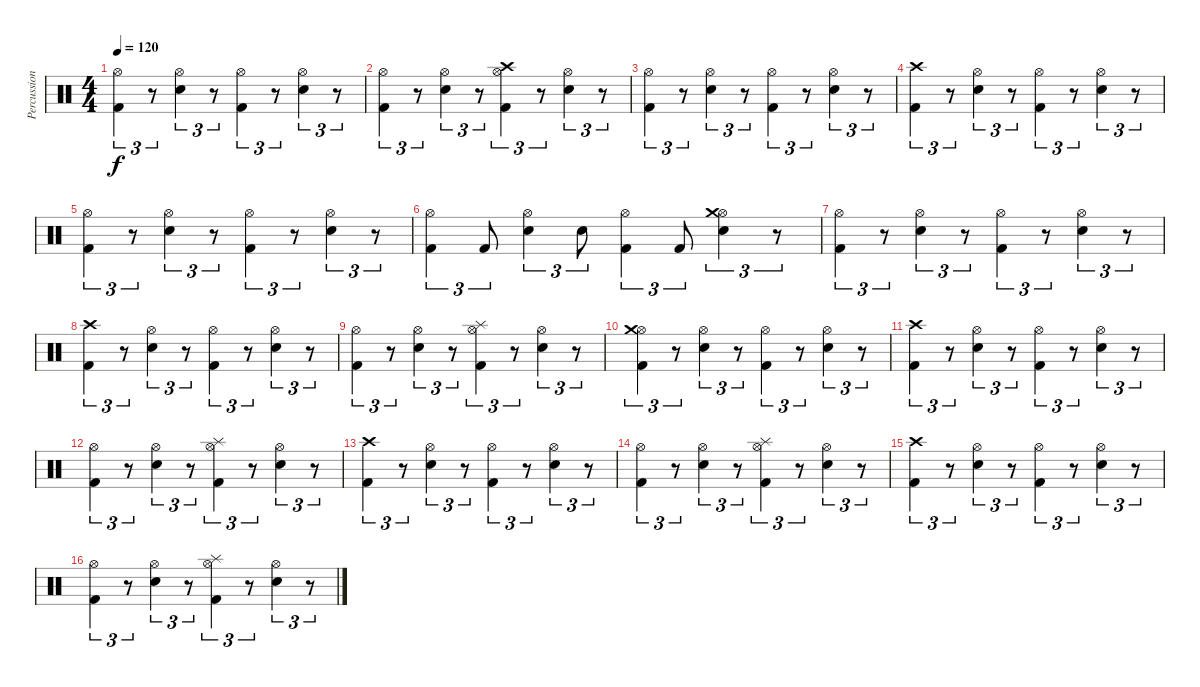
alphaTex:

\track ("Percussioni" "Percussion") {instrument percussion}
\staff {score}
\articulation defaults
\ts (4 4)
\tempo 120
\clef neutral
\ks c
("Kick (hit) 2" "Hi-Hat (open)").4{tu (3 2) dy f} r.8{tu (3 2)} ("Electric Snare (hit)" "Hi-Hat (open)").4{tu (3 2)} r.8{tu (3 2)} ("Kick (hit) 2" "Hi-Hat (open)").4{tu (3 2)} r.8{tu (3 2)} ("Electric Snare (hit)" "Hi-Hat (open)").4{tu (3 2)} r.8{tu (3 2)} |
("Kick (hit) 2" "Hi-Hat (open)").4{tu (3 2)} r.8{tu (3 2)} ("Electric Snare (hit)" "Hi-Hat (open)").4{tu (3 2)} r.8{tu (3 2)} ("Kick (hit) 2" "Hi-Hat (open)" "Crash high (hit)").4{tu (3 2)} r.8{tu (3 2)} ("Electric Snare (hit)" "Hi-Hat (open)").4{tu (3 2)} r.8{tu (3 2)} |
("Kick (hit) 2" "Hi-Hat (open)").4{tu (3 2)} r.8{tu (3 2)} ("Electric Snare (hit)" "Hi-Hat (open)").4{tu (3 2)} r.8{tu (3 2)} ("Kick (hit) 2" "Hi-Hat (open)").4{tu (3 2)} r.8{tu (3 2)} ("Electric Snare (hit)" "Hi-Hat (open)").4{tu (3 2)} r.8{tu (3 2)} |
("Kick (hit) 2" "Crash high (hit)").4{tu (3 2)} r.8{tu (3 2)} ("Electric Snare (hit)" "Hi-Hat (open)").4{tu (3 2)} r.8{tu (3 2)} ("Kick (hit) 2" "Hi-Hat (open)").4{tu (3 2)} r.8{tu (3 2)} ("Electric Snare (hit)" "Hi-Hat (open)").4{tu (3 2)} r.8{tu (3 2)} |
("Kick (hit) 2" "Hi-Hat (open)").4{tu (3 2)} r.8{tu (3 2)} ("Electric Snare (hit)" "Hi-Hat (open)").4{tu (3 2)} r.8{tu (3 2)} ("Kick (hit) 2" "Hi-Hat (open)").4{tu (3 2)} r.8{tu (3 2)} ("Electric Snare (hit)" "Hi-Hat (open)").4{tu (3 2)} r.8{tu (3 2)} |
("Kick (hit) 2" "Hi-Hat (open)").4{tu (3 2)} "Kick (hit) 2".8{tu (3 2)} ("Electric Snare (hit)" "Hi-Hat (open)").4{tu (3 2)} "Electric Snare (hit)".8{tu (3 2)} ("Kick (hit) 2" "Hi-Hat (open)").4{tu (3 2)} "Kick (hit) 2".8{tu (3 2)} ("Electric Snare (hit)" "Hi-Hat (open)" "Crash medium (hit)").4{tu (3 2)} r.8{tu (3 2)} |
("Kick (hit) 2" "Hi-Hat (open)").4{tu (3 2)} r.8{tu (3 2)} ("Electric Snare (hit)" "Hi-Hat (open)").4{tu (3 2)} r.8{tu (3 2)} ("Kick (hit) 2" "Hi-Hat (open)").4{tu (3 2)} r.8{tu (3 2)} ("Electric Snare (hit)" "Hi-Hat (open)").4{tu (3 2)} r.8{tu (3 2)} |
("Kick (hit) 2" "Crash high (hit)").4{tu (3 2)} r.8{tu (3 2)} ("Electric Snare (hit)" "Hi-Hat (open)").4{tu (3 2)} r.8{tu (3 2)} ("Kick (hit) 2" "Hi-Hat (open)").4{tu (3 2)} r.8{tu (3 2)} ("Electric Snare (hit)" "Hi-Hat (open)").4{tu (3 2)} r.8{tu (3 2)} |
("Kick (hit) 2" "Hi-Hat (open)").4{tu (3 2)} r.8{tu (3 2)} ("Electric Snare (hit)" "Hi-Hat (open)").4{tu (3 2)} r.8{tu (3 2)} ("Kick (hit) 2" "Hi-Hat (open)" "Splash (hit)").4{tu (3 2)} r.8{tu (3 2)} ("Electric Snare (hit)" "Hi-Hat (open)").4{tu (3 2)} r.8{tu (3 2)} |
("Kick (hit) 2" "Hi-Hat (open)" "Crash medium (hit)").4{tu (3 2)} r.8{tu (3 2)} ("Electric Snare (hit)" "Hi-Hat (open)").4{tu (3 2)} r.8{tu (3 2)} ("Kick (hit) 2" "Hi-Hat (open)").4{tu (3 2)} r.8{tu (3 2)} ("Electric Snare (hit)" "Hi-Hat (open)").4{tu (3 2)} r.8{tu (3 2)} |
("Kick (hit) 2" "Crash high (hit)").4{tu (3 2)} r.8{tu (3 2)} ("Electric Snare (hit)" "Hi-Hat (open)").4{tu (3 2)} r.8{tu (3 2)} ("Kick (hit) 2" "Hi-Hat (open)").4{tu (3 2)} r.8{tu (3 2)} ("Electric Snare (hit)" "Hi-Hat (open)").4{tu (3 2)} r.8{tu (3 2)} |
("Kick (hit) 2" "Hi-Hat (open)").4{tu (3 2)} r.8{tu (3 2)} ("Electric Snare (hit)" "Hi-Hat (open)").4{tu (3 2)} r.8{tu (3 2)} ("Kick (hit) 2" "Hi-Hat (open)" "Splash (hit)").4{tu (3 2)} r.8{tu (3 2)} ("Electric Snare (hit)" "Hi-Hat (open)").4{tu (3 2)} r.8{tu (3 2)} |
("Kick (hit) 2" "Crash high (hit)").4{tu (3 2)} r.8{tu (3 2)} ("Electric Snare (hit)" "Hi-Hat (open)").4{tu (3 2)} r.8{tu (3 2)} ("Kick (hit) 2" "Hi-Hat (open)").4{tu (3 2)} r.8{tu (3 2)} ("Electric Snare (hit)" "Hi-Hat (open)").4{tu (3 2)} r.8{tu (3 2)} |
("Kick (hit) 2" "Hi-Hat (open)").4{tu (3 2)} r.8{tu (3 2)} ("Electric Snare (hit)" "Hi-Hat (open)").4{tu (3 2)} r.8{tu (3 2)} ("Kick (hit) 2" "Hi-Hat (open)" "Splash (hit)").4{tu (3 2)} r.8{tu (3 2)} ("Electric Snare (hit)" "Hi-Hat (open)").4{tu (3 2)} r.8{tu (3 2)} |
("Kick (hit) 2" "Crash high (hit)").4{tu (3 2)} r.8{tu (3 2)} ("Electric Snare (hit)" "Hi-Hat (open)").4{tu (3 2)} r.8{tu (3 2)} ("Kick (hit) 2" "Hi-Hat (open)").4{tu (3 2)} r.8{tu (3 2)} ("Electric Snare (hit)" "Hi-Hat (open)").4{tu (3 2)} r.8{tu (3 2)} |
("Kick (hit) 2" "Hi-Hat (open)").4{tu (3 2)} r.8{tu (3 2)} ("Electric Snare (hit)" "Hi-Hat (open)").4{tu (3 2)} r.8{tu (3 2)} ("Kick (hit) 2" "Hi-Hat (open)" "Splash (hit)").4{tu (3 2)} r.8{tu (3 2)} ("Electric Snare (hit)" "Hi-Hat (open)").4{tu (3 2)} r.8{tu (3 2)}
